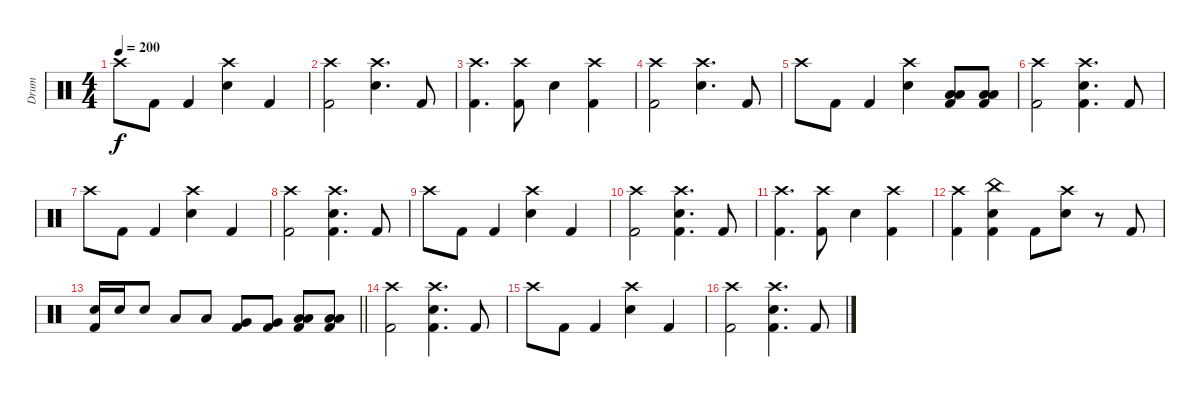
\track ("Drum" "Drum") {instrument percussion}
\staff {score}
\articulation defaults
\ts (4 4)
\tempo 200
\clef neutral
\ks c "Crash high (hit)".8{dy f} "Kick (hit) 2".8 "Kick (hit) 2".4
("Crash high (hit)" "Electric Snare (hit)").4 "Kick (hit) 2".4 |
("Crash high (hit)" "Kick (hit) 2").2 ("Crash high (hit)" "Electric Snare (hit)").4{d} "Kick (hit) 2".8 |
("Crash high (hit)" "Kick (hit) 2").4{d} ("Crash high (hit)" "Kick (hit) 2").8 "Electric Snare (hit)".4 ("Crash high (hit)" "Kick (hit) 2").4 |
("Crash high (hit)" "Kick (hit) 2").2 ("Crash high (hit)" "Electric Snare (hit)").4{d} "Kick (hit) 2".8 |
"Crash high (hit)".8 "Kick (hit) 2".8 "Kick (hit) 2".4 ("Crash high (hit)" "Electric Snare (hit)").4 ("Low Tom (hit)" "Low Floor Tom (hit)" "Kick (hit) 2").8 ("Low Tom (hit)" "Low Floor Tom (hit)" "Kick (hit) 2").8 |
("Crash high (hit)" "Kick (hit) 2").2 ("Crash high (hit)" "Electric Snare (hit)" "Kick (hit) 2").4{d} "Kick (hit) 2".8 |
"Crash high (hit)".8 "Kick (hit) 2".8 "Kick (hit) 2".4 ("Crash high (hit)" "Electric Snare (hit)").4 "Kick (hit) 2".4 |
("Crash high (hit)" "Kick (hit) 2").2 ("Crash high (hit)" "Electric Snare (hit)" "Kick (hit) 2").4{d} "Kick (hit) 2".8 |
"Crash high (hit)".8 "Kick (hit) 2".8 "Kick (hit) 2".4 ("Crash high (hit)" "Electric Snare (hit)").4 "Kick (hit) 2".4 |
("Crash high (hit)" "Kick (hit) 2").2 ("Crash high (hit)" "Electric Snare (hit)" "Kick (hit) 2").4{d} "Kick (hit) 2".8 |
("Crash high (hit)" "Kick (hit) 2").4{d} ("Crash high (hit)" "Kick (hit) 2").8 "Electric Snare (hit)".4 ("Crash high (hit)" "Kick (hit) 2").4 |
("Crash high (hit)" "Kick (hit) 2").4 ("China (hit)" "Electric Snare (hit)" "Kick (hit) 2").4 "Kick (hit) 2".8 ("Crash high (hit)" "Electric Snare (hit)").8 r.8 "Kick (hit) 2".8 |
\barLineRight lightlight
("Electric Snare (hit)" "Kick (hit) 2").16 "Electric Snare (hit)".16 "Electric Snare (hit)".8 "Low Tom (hit)".8 "Low Tom (hit)".8 ("Very Low Tom (hit)" "Kick (hit) 2").8 ("Very Low Tom (hit)" "Kick (hit) 2").8 ("Low Tom (hit)" "Low Floor Tom (hit)" "Kick (hit) 2").8 ("Low Tom (hit)" "Low Floor Tom (hit)" "Kick (hit) 2").8 |
("Crash high (hit)" "Kick (hit) 2").2 ("Crash high (hit)" "Electric Snare (hit)" "Kick (hit) 2").4{d} "Kick (hit) 2".8 |
"Crash high (hit)".8 "Kick (hit) 2".8 "Kick (hit) 2".4 ("Crash high (hit)" "Electric Snare (hit)").4 "Kick (hit) 2".4 |
("Crash high (hit)" "Kick (hit) 2").2 ("Crash high (hit)" "Electric Snare (hit)" "Kick (hit) 2").4{d} "Kick (hit) 2".8
